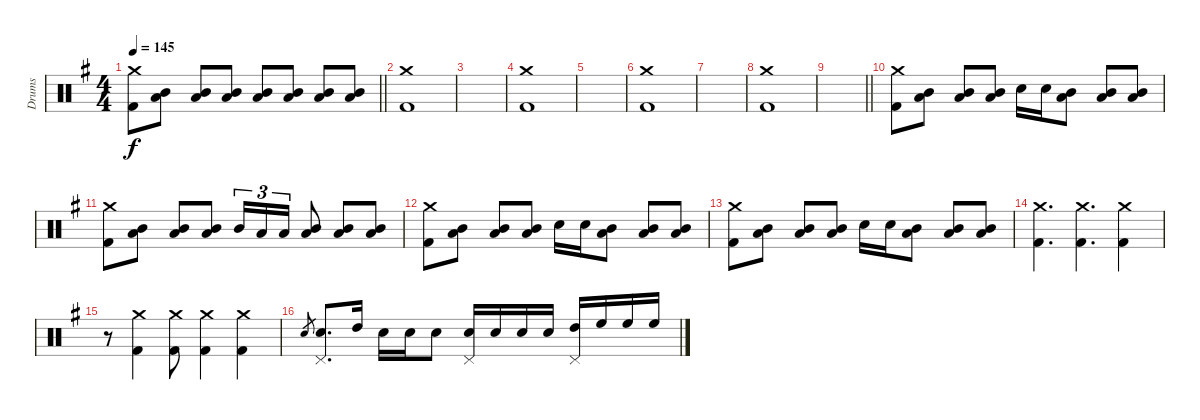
\track ("Drums" "Drums") {instrument percussion}
\staff {score}
\articulation defaults
\ts (4 4)
\tempo 145
\clef neutral
\barLineRight lightlight
\ks eminor
("Crash medium (hit)" "Kick (hit) 2").8{dy f} ("Low Tom (hit)" "Mid Tom (hit)").8 ("Low Tom (hit)" "Mid Tom (hit)").8 ("Low Tom (hit)" "Mid Tom (hit)").8 ("Low Tom (hit)" "Mid Tom (hit)").8 ("Low Tom (hit)" "Mid Tom (hit)").8 ("Low Tom (hit)" "Mid Tom (hit)").8 ("Low Tom (hit)" "Mid Tom (hit)").8 |
("Crash medium (hit)" "Kick (hit) 2").1 |
|
("Crash medium (hit)" "Kick (hit) 2").1 |
|
("Crash medium (hit)" "Kick (hit) 2").1 |
|
("Crash medium (hit)" "Kick (hit) 2").1 |
\barLineRight lightlight
|
("Crash medium (hit)" "Kick (hit) 2").8 ("Mid Tom (hit)" "Low Tom (hit)").8 ("Mid Tom (hit)" "Low Tom (hit)").8 ("Mid Tom (hit)" "Low Tom (hit)").8 "Electric Snare (hit)".16 "Electric Snare (hit)".16 ("Low Tom (hit)" "Mid Tom (hit)").8 ("Low Tom (hit)" "Mid Tom (hit)").8 ("Low Tom (hit)" "Mid Tom (hit)").8 |
("Crash medium (hit)" "Kick (hit) 2").8 ("Mid Tom (hit)" "Low Tom (hit)").8 ("Mid Tom (hit)" "Low Tom (hit)").8 ("Mid Tom (hit)" "Low Tom (hit)").8 "Mid Tom (hit)".16{tu (3 2)} "Low Tom (hit)".16{tu (3 2)} "Low Tom (hit)".16{tu (3 2)} ("Low Tom (hit)" "Mid Tom (hit)").8 ("Low Tom (hit)" "Mid Tom (hit)").8 ("Low Tom (hit)" "Mid Tom (hit)").8 |
("Crash medium (hit)" "Kick (hit) 2").8 ("Mid Tom (hit)" "Low Tom (hit)").8 ("Mid Tom (hit)" "Low Tom (hit)").8 ("Mid Tom (hit)" "Low Tom (hit)").8 "Electric Snare (hit)".16 "Electric Snare (hit)".16 ("Low Tom (hit)" "Mid Tom (hit)").8 ("Low Tom (hit)" "Mid Tom (hit)").8 ("Low Tom (hit)" "Mid Tom (hit)").8 |
("Crash medium (hit)" "Kick (hit) 2").8 ("Mid Tom (hit)" "Low Tom (hit)").8 ("Mid Tom (hit)" "Low Tom (hit)").8 ("Mid Tom (hit)" "Low Tom (hit)").8 "Electric Snare (hit)".16 "Electric Snare (hit)".16 ("Low Tom (hit)" "Mid Tom (hit)").8 ("Low Tom (hit)" "Mid Tom (hit)").8 ("Low Tom (hit)" "Mid Tom (hit)").8 |
("Crash medium (hit)" "Kick (hit) 2").4{d} ("Crash medium (hit)" "Kick (hit) 2").4{d} ("Crash medium (hit)" "Kick (hit) 2").4 |
r.8 ("Crash medium (hit)" "Kick (hit) 2").4 ("Crash medium (hit)" "Kick (hit) 2").8 ("Crash medium (hit)" "Kick (hit) 2").4 ("Crash medium (hit)" "Kick (hit) 2").4 |
"Electric Snare (hit)".8{gr} ("Electric Snare (hit)" "Pedal Hi-Hat (hit)").8{d} "High Tom (hit)".16 "Electric Snare (hit)".16 "Electric Snare (hit)".16 "Electric Snare (hit)".8 ("Electric Snare (hit)" "Pedal Hi-Hat (hit)").16 "Electric Snare (hit)".16 "Electric Snare (hit)".16 "Electric Snare (hit)".16 ("High Tom (hit)" "Pedal Hi-Hat (hit)").16 "High Floor Tom (hit)".16 "High Floor Tom (hit)".16 "High Floor Tom (hit)".16
